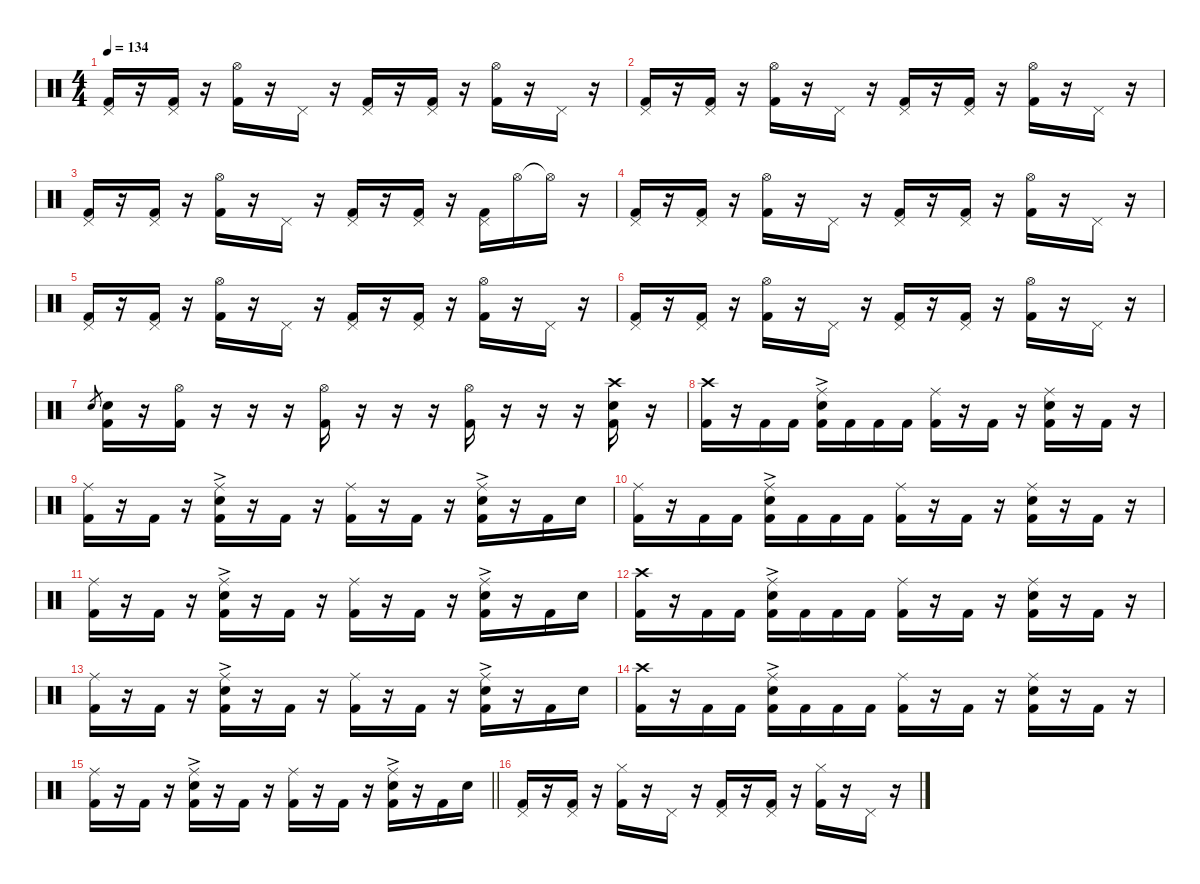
\defaultSystemsLayout 4
\hideDynamics
\bracketExtendMode nobrackets
\singleTrackTrackNamePolicy hidden
\multiTrackTrackNamePolicy hidden
\firstSystemTrackNameMode fullname
\otherSystemsTrackNameOrientation horizontal
\track ("DRUMS" "drm.") {instrument percussion}
\staff {score}
\articulation defaults
\ts (4 4)
\tempo 134
\clef neutral
\ks c
("Pedal Hi-Hat (hit)" "Kick (hit) 2").16{dy ff beam Up} r.16{beam Up} ("Pedal Hi-Hat (hit)" "Kick (hit) 2").16{dy mf beam Up} r.16{beam Up} ("Hi-Hat (open)" "Kick (hit) 2").16{dy f beam Down} r.16{beam Down} "Pedal Hi-Hat (hit)".16{dy mf beam Down} r.16{beam Down} ("Pedal Hi-Hat (hit)" "Kick (hit) 2").16{dy ff beam Up} r.16{beam Up} ("Pedal Hi-Hat (hit)" "Kick (hit) 2").16{dy mf beam Up} r.16{beam Up} ("Hi-Hat (open)" "Kick (hit) 2").16{dy f beam Down} r.16{beam Down} "Pedal Hi-Hat (hit)".16{dy mf beam Down} r.16{beam Down} |
("Pedal Hi-Hat (hit)" "Kick (hit) 2").16{dy ff beam Up} r.16{beam Up} ("Pedal Hi-Hat (hit)" "Kick (hit) 2").16{dy mf beam Up} r.16{beam Up} ("Hi-Hat (open)" "Kick (hit) 2").16{dy f beam Down} r.16{beam Down} "Pedal Hi-Hat (hit)".16{dy mf beam Down} r.16{beam Down} ("Pedal Hi-Hat (hit)" "Kick (hit) 2").16{dy ff beam Up} r.16{beam Up} ("Pedal Hi-Hat (hit)" "Kick (hit) 2").16{dy mf beam Up} r.16{beam Up} ("Hi-Hat (open)" "Kick (hit) 2").16{dy f beam Down} r.16{beam Down} "Pedal Hi-Hat (hit)".16{dy mf beam Down} r.16{beam Down} |
("Pedal Hi-Hat (hit)" "Kick (hit) 2").16{dy ff beam Up} r.16{beam Up} ("Pedal Hi-Hat (hit)" "Kick (hit) 2").16{dy mf beam Up} r.16{beam Up} ("Hi-Hat (open)" "Kick (hit) 2").16{dy f beam Down} r.16{beam Down} "Pedal Hi-Hat (hit)".16{dy mf beam Down} r.16{beam Down} ("Pedal Hi-Hat (hit)" "Kick (hit) 2").16{dy ff beam Up} r.16{beam Up} ("Pedal Hi-Hat (hit)" "Kick (hit) 2").16{dy mf beam Up} r.16{beam Up} ("Pedal Hi-Hat (hit)" "Kick (hit) 2").16{dy f beam Down} "Hi-Hat (open)".16{beam Down} "Hi-Hat (open)"{t}.16{beam Down} r.16{beam Down} |
("Pedal Hi-Hat (hit)" "Kick (hit) 2").16{dy ff beam Up} r.16{beam Up} ("Pedal Hi-Hat (hit)" "Kick (hit) 2").16{dy mf beam Up} r.16{beam Up} ("Hi-Hat (open)" "Kick (hit) 2").16{dy f beam Down} r.16{beam Down} "Pedal Hi-Hat (hit)".16{dy mf beam Down} r.16{beam Down} ("Pedal Hi-Hat (hit)" "Kick (hit) 2").16{dy ff beam Up} r.16{beam Up} ("Pedal Hi-Hat (hit)" "Kick (hit) 2").16{dy mf beam Up} r.16{beam Up} ("Hi-Hat (open)" "Kick (hit) 2").16{dy f beam Down} r.16{beam Down} "Pedal Hi-Hat (hit)".16{dy mf beam Down} r.16{beam Down} |
("Pedal Hi-Hat (hit)" "Kick (hit) 2").16{dy ff beam Up} r.16{beam Up} ("Pedal Hi-Hat (hit)" "Kick (hit) 2").16{dy mf beam Up} r.16{beam Up} ("Hi-Hat (open)" "Kick (hit) 2").16{dy f beam Down} r.16{beam Down} "Pedal Hi-Hat (hit)".16{dy mf beam Down} r.16{beam Down} ("Pedal Hi-Hat (hit)" "Kick (hit) 2").16{dy ff beam Up} r.16{beam Up} ("Pedal Hi-Hat (hit)" "Kick (hit) 2").16{dy mf beam Up} r.16{beam Up} ("Hi-Hat (open)" "Kick (hit) 2").16{dy f beam Down} r.16{beam Down} "Pedal Hi-Hat (hit)".16{dy mf beam Down} r.16{beam Down} |
("Pedal Hi-Hat (hit)" "Kick (hit) 2").16{dy ff beam Up} r.16{beam Up} ("Pedal Hi-Hat (hit)" "Kick (hit) 2").16{dy mf beam Up} r.16{beam Up} ("Hi-Hat (open)" "Kick (hit) 2").16{dy f beam Down} r.16{beam Down} "Pedal Hi-Hat (hit)".16{dy mf beam Down} r.16{beam Down} ("Pedal Hi-Hat (hit)" "Kick (hit) 2").16{dy ff beam Up} r.16{beam Up} ("Pedal Hi-Hat (hit)" "Kick (hit) 2").16{dy mf beam Up} r.16{beam Up} ("Hi-Hat (open)" "Kick (hit) 2").16{dy f beam Down} r.16{beam Down} "Pedal Hi-Hat (hit)".16{dy mf beam Down} r.16{beam Down} |
"Electric Snare (hit)".8{gr dy f beam Up} ("Snare (hit) 2" "Kick (hit) 2").16{dy ff beam Down} r.16{beam Down} ("Hi-Hat (open)" "Kick (hit) 2").16{dy mf beam Down} r.16{beam Down} r.16{beam Down} r.16{beam Down} ("Hi-Hat (open)" "Kick (hit) 2").16{beam Down} r.16{beam Down} r.16{beam Down} r.16{beam Down} ("Hi-Hat (open)" "Kick (hit) 2").16{beam Down} r.16{beam Down} r.16{beam Down} r.16{beam Down} ("Crash high (hit)" "Snare (hit) 2" "Kick (hit) 2").16{dy f beam Down} r.16{beam Down} |
("Crash high (hit)" "Kick (hit) 2").16{dy ff beam Down} r.16{beam Down} "Kick (hit) 2".16{beam Down} "Kick (hit) 2".16{dy f beam Down} ("Ride (middle)" "Snare (hit) 2"{ac} "Kick (hit) 2").16{dy mf beam Down} "Kick (hit) 2".16{dy f beam Down} "Kick (hit) 2".16{dy ff beam Down} "Kick (hit) 2".16{dy f beam Down} ("Ride (middle)" "Kick (hit) 2").16{dy ff beam Down} r.16{beam Down} "Kick (hit) 2".16{beam Down} r.16{beam Down} ("Ride (middle)" "Snare (hit) 2" "Kick (hit) 2").16{dy mf beam Down} r.16{beam Down} "Kick (hit) 2".16{dy ff beam Down} r.16{beam Down} |
("Ride (middle)" "Kick (hit) 2").16{beam Down} r.16{beam Down} "Kick (hit) 2".16{beam Down} r.16{beam Down} ("Ride (middle)" "Snare (hit) 2"{ac} "Kick (hit) 2").16{dy mf beam Down} r.16{beam Down} "Kick (hit) 2".16{dy ff beam Down} r.16{beam Down} ("Ride (middle)" "Kick (hit) 2").16{beam Down} r.16{beam Down} "Kick (hit) 2".16{beam Down} r.16{beam Down} ("Ride (middle)" "Snare (hit) 2"{ac} "Kick (hit) 2").16{dy mf beam Down} r.16{beam Down} "Kick (hit) 2".16{dy ff beam Down} "Snare (hit) 2".16{dy f beam Down} |
("Ride (middle)" "Kick (hit) 2").16{dy ff beam Down} r.16{beam Down} "Kick (hit) 2".16{beam Down} "Kick (hit) 2".16{dy f beam Down} ("Ride (middle)" "Snare (hit) 2"{ac} "Kick (hit) 2").16{dy mf beam Down} "Kick (hit) 2".16{dy f beam Down} "Kick (hit) 2".16{dy ff beam Down} "Kick (hit) 2".16{dy f beam Down} ("Ride (middle)" "Kick (hit) 2").16{dy ff beam Down} r.16{beam Down} "Kick (hit) 2".16{beam Down} r.16{beam Down} ("Ride (middle)" "Snare (hit) 2" "Kick (hit) 2").16{dy mf beam Down} r.16{beam Down} "Kick (hit) 2".16{dy ff beam Down} r.16{beam Down} |
("Ride (middle)" "Kick (hit) 2").16{beam Down} r.16{beam Down} "Kick (hit) 2".16{beam Down} r.16{beam Down} ("Ride (middle)" "Snare (hit) 2"{ac} "Kick (hit) 2").16{dy mf beam Down} r.16{beam Down} "Kick (hit) 2".16{dy ff beam Down} r.16{beam Down} ("Ride (middle)" "Kick (hit) 2").16{beam Down} r.16{beam Down} "Kick (hit) 2".16{beam Down} r.16{beam Down} ("Ride (middle)" "Snare (hit) 2"{ac} "Kick (hit) 2").16{dy mf beam Down} r.16{beam Down} "Kick (hit) 2".16{dy ff beam Down} "Snare (hit) 2".16{dy f beam Down} |
("Crash high (hit)" "Kick (hit) 2").16{dy ff beam Down} r.16{beam Down} "Kick (hit) 2".16{beam Down} "Kick (hit) 2".16{dy f beam Down} ("Ride (middle)" "Snare (hit) 2"{ac} "Kick (hit) 2").16{dy mf beam Down} "Kick (hit) 2".16{dy f beam Down} "Kick (hit) 2".16{dy ff beam Down} "Kick (hit) 2".16{dy f beam Down} ("Ride (middle)" "Kick (hit) 2").16{dy ff beam Down} r.16{beam Down} "Kick (hit) 2".16{beam Down} r.16{beam Down} ("Ride (middle)" "Snare (hit) 2" "Kick (hit) 2").16{dy mf beam Down} r.16{beam Down} "Kick (hit) 2".16{dy ff beam Down} r.16{beam Down} |
("Ride (middle)" "Kick (hit) 2").16{beam Down} r.16{beam Down} "Kick (hit) 2".16{beam Down} r.16{beam Down} ("Ride (middle)" "Snare (hit) 2"{ac} "Kick (hit) 2").16{dy mf beam Down} r.16{beam Down} "Kick (hit) 2".16{dy ff beam Down} r.16{beam Down} ("Ride (middle)" "Kick (hit) 2").16{beam Down} r.16{beam Down} "Kick (hit) 2".16{beam Down} r.16{beam Down} ("Ride (middle)" "Snare (hit) 2"{ac} "Kick (hit) 2").16{dy mf beam Down} r.16{beam Down} "Kick (hit) 2".16{dy ff beam Down} "Snare (hit) 2".16{dy f beam Down} |
("Crash high (hit)" "Kick (hit) 2").16{dy ff beam Down} r.16{beam Down} "Kick (hit) 2".16{beam Down} "Kick (hit) 2".16{dy f beam Down} ("Ride (middle)" "Snare (hit) 2"{ac} "Kick (hit) 2").16{dy mf beam Down} "Kick (hit) 2".16{dy f beam Down} "Kick (hit) 2".16{dy ff beam Down} "Kick (hit) 2".16{dy f beam Down} ("Ride (middle)" "Kick (hit) 2").16{dy ff beam Down} r.16{beam Down} "Kick (hit) 2".16{beam Down} r.16{beam Down} ("Ride (middle)" "Snare (hit) 2" "Kick (hit) 2").16{dy mf beam Down} r.16{beam Down} "Kick (hit) 2".16{dy ff beam Down} r.16{beam Down} |
\barLineRight lightlight
("Ride (middle)" "Kick (hit) 2").16{beam Down} r.16{beam Down} "Kick (hit) 2".16{beam Down} r.16{beam Down} ("Ride (middle)" "Snare (hit) 2"{ac} "Kick (hit) 2").16{dy mf beam Down} r.16{beam Down} "Kick (hit) 2".16{dy ff beam Down} r.16{beam Down} ("Ride (middle)" "Kick (hit) 2").16{beam Down} r.16{beam Down} "Kick (hit) 2".16{beam Down} r.16{beam Down} ("Ride (middle)" "Snare (hit) 2"{ac} "Kick (hit) 2").16{dy mf beam Down} r.16{beam Down} "Kick (hit) 2".16{dy ff beam Down} "Snare (hit) 2".16{dy f beam Down} |
("Pedal Hi-Hat (hit)" "Kick (hit) 2").16{dy ff beam Up} r.16{beam Up} ("Pedal Hi-Hat (hit)" "Kick (hit) 2").16{dy mf beam Up} r.16{beam Up} ("Hi-Hat (closed)" "Kick (hit) 2").16{dy ff beam Down} r.16{beam Down} "Pedal Hi-Hat (hit)".16{dy mf beam Down} r.16{beam Down} ("Pedal Hi-Hat (hit)" "Kick (hit) 2").16{dy ff beam Up} r.16{beam Up} ("Pedal Hi-Hat (hit)" "Kick (hit) 2").16{dy mf beam Up} r.16{beam Up} ("Hi-Hat (closed)" "Kick (hit) 2").16{dy ff beam Down} r.16{beam Down} "Pedal Hi-Hat (hit)".16{dy mf beam Down} r.16{beam Down}
